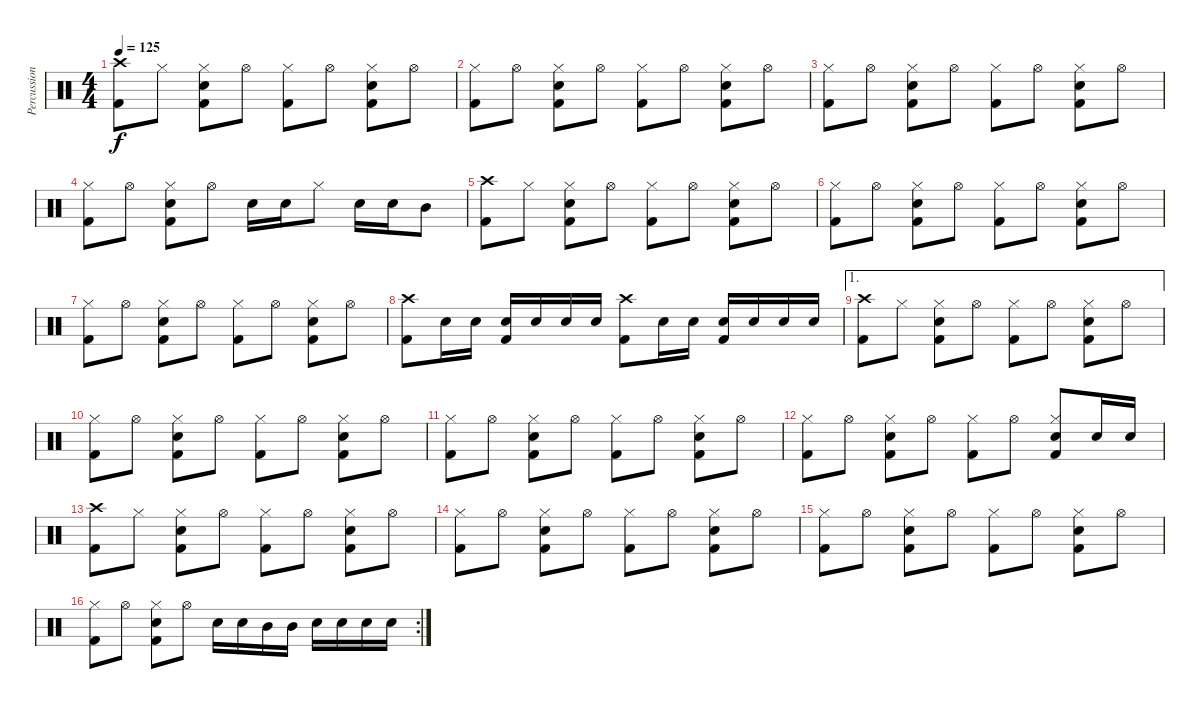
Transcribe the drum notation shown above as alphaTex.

\track ("Percussion" "Percussion") {instrument percussion}
\staff {score}
\articulation defaults
\ts (4 4)
\tempo 125
\clef neutral
\ks c
("Crash high (hit)" "Kick (hit) 2").8{dy f} "Hi-Hat (closed)".8 ("Hi-Hat (closed)" "Electric Snare (hit)" "Kick (hit) 2").8 "Hi-Hat (open)".8 ("Hi-Hat (closed)" "Kick (hit) 2").8 "Hi-Hat (open)".8 ("Hi-Hat (closed)" "Electric Snare (hit)" "Kick (hit) 2").8 "Hi-Hat (open)".8 |
("Hi-Hat (closed)" "Kick (hit) 2").8 "Hi-Hat (open)".8 ("Hi-Hat (closed)" "Electric Snare (hit)" "Kick (hit) 2").8 "Hi-Hat (open)".8 ("Hi-Hat (closed)" "Kick (hit) 2").8 "Hi-Hat (open)".8 ("Hi-Hat (closed)" "Electric Snare (hit)" "Kick (hit) 2").8 "Hi-Hat (open)".8 |
("Hi-Hat (closed)" "Kick (hit) 2").8 "Hi-Hat (open)".8 ("Hi-Hat (closed)" "Electric Snare (hit)" "Kick (hit) 2").8 "Hi-Hat (open)".8 ("Hi-Hat (closed)" "Kick (hit) 2").8 "Hi-Hat (open)".8 ("Hi-Hat (closed)" "Electric Snare (hit)" "Kick (hit) 2").8 "Hi-Hat (open)".8 |
("Hi-Hat (closed)" "Kick (hit) 2").8 "Hi-Hat (open)".8 ("Hi-Hat (closed)" "Electric Snare (hit)" "Kick (hit) 2").8 "Hi-Hat (open)".8 "Electric Snare (hit)".16 "Electric Snare (hit)".16 "Hi-Hat (closed)".8 "Electric Snare (hit)".16 "Electric Snare (hit)".16 "Mid Tom (hit)".8 |
("Crash high (hit)" "Kick (hit) 2").8 "Hi-Hat (closed)".8 ("Hi-Hat (closed)" "Electric Snare (hit)" "Kick (hit) 2").8 "Hi-Hat (open)".8 ("Hi-Hat (closed)" "Kick (hit) 2").8 "Hi-Hat (open)".8 ("Hi-Hat (closed)" "Electric Snare (hit)" "Kick (hit) 2").8 "Hi-Hat (open)".8 |
("Hi-Hat (closed)" "Kick (hit) 2").8 "Hi-Hat (open)".8 ("Hi-Hat (closed)" "Electric Snare (hit)" "Kick (hit) 2").8 "Hi-Hat (open)".8 ("Hi-Hat (closed)" "Kick (hit) 2").8 "Hi-Hat (open)".8 ("Hi-Hat (closed)" "Electric Snare (hit)" "Kick (hit) 2").8 "Hi-Hat (open)".8 |
("Hi-Hat (closed)" "Kick (hit) 2").8 "Hi-Hat (open)".8 ("Hi-Hat (closed)" "Electric Snare (hit)" "Kick (hit) 2").8 "Hi-Hat (open)".8 ("Hi-Hat (closed)" "Kick (hit) 2").8 "Hi-Hat (open)".8 ("Hi-Hat (closed)" "Electric Snare (hit)" "Kick (hit) 2").8 "Hi-Hat (open)".8 |
("Crash high (hit)" "Kick (hit) 2").8 "Electric Snare (hit)".16 "Electric Snare (hit)".16 ("Electric Snare (hit)" "Kick (hit) 2").16 "Electric Snare (hit)".16 "Electric Snare (hit)".16 "Electric Snare (hit)".16 ("Crash high (hit)" "Kick (hit) 2").8 "Electric Snare (hit)".16 "Electric Snare (hit)".16 ("Electric Snare (hit)" "Kick (hit) 2").16 "Electric Snare (hit)".16 "Electric Snare (hit)".16 "Electric Snare (hit)".16 |
\ae 1
("Crash high (hit)" "Kick (hit) 2").8{txt ""} "Hi-Hat (closed)".8 ("Hi-Hat (closed)" "Electric Snare (hit)" "Kick (hit) 2").8 "Hi-Hat (open)".8 ("Hi-Hat (closed)" "Kick (hit) 2").8 "Hi-Hat (open)".8 ("Hi-Hat (closed)" "Electric Snare (hit)" "Kick (hit) 2").8 "Hi-Hat (open)".8 |
("Hi-Hat (closed)" "Kick (hit) 2").8 "Hi-Hat (open)".8 ("Hi-Hat (closed)" "Electric Snare (hit)" "Kick (hit) 2").8 "Hi-Hat (open)".8 ("Hi-Hat (closed)" "Kick (hit) 2").8 "Hi-Hat (open)".8 ("Hi-Hat (closed)" "Electric Snare (hit)" "Kick (hit) 2").8 "Hi-Hat (open)".8 |
("Hi-Hat (closed)" "Kick (hit) 2").8 "Hi-Hat (open)".8 ("Hi-Hat (closed)" "Electric Snare (hit)" "Kick (hit) 2").8 "Hi-Hat (open)".8 ("Hi-Hat (closed)" "Kick (hit) 2").8 "Hi-Hat (open)".8 ("Hi-Hat (closed)" "Electric Snare (hit)" "Kick (hit) 2").8 "Hi-Hat (open)".8 |
("Hi-Hat (closed)" "Kick (hit) 2").8 "Hi-Hat (open)".8 ("Hi-Hat (closed)" "Electric Snare (hit)" "Kick (hit) 2").8 "Hi-Hat (open)".8 ("Hi-Hat (closed)" "Kick (hit) 2").8 "Hi-Hat (open)".8 ("Hi-Hat (closed)" "Electric Snare (hit)" "Kick (hit) 2").8 "Electric Snare (hit)".16 "Electric Snare (hit)".16 |
("Crash high (hit)" "Kick (hit) 2").8 "Hi-Hat (closed)".8 ("Hi-Hat (closed)" "Electric Snare (hit)" "Kick (hit) 2").8 "Hi-Hat (open)".8 ("Hi-Hat (closed)" "Kick (hit) 2").8 "Hi-Hat (open)".8 ("Hi-Hat (closed)" "Electric Snare (hit)" "Kick (hit) 2").8 "Hi-Hat (open)".8 |
("Hi-Hat (closed)" "Kick (hit) 2").8 "Hi-Hat (open)".8 ("Hi-Hat (closed)" "Electric Snare (hit)" "Kick (hit) 2").8 "Hi-Hat (open)".8 ("Hi-Hat (closed)" "Kick (hit) 2").8 "Hi-Hat (open)".8 ("Hi-Hat (closed)" "Electric Snare (hit)" "Kick (hit) 2").8 "Hi-Hat (open)".8 |
("Hi-Hat (closed)" "Kick (hit) 2").8 "Hi-Hat (open)".8 ("Hi-Hat (closed)" "Electric Snare (hit)" "Kick (hit) 2").8 "Hi-Hat (open)".8 ("Hi-Hat (closed)" "Kick (hit) 2").8 "Hi-Hat (open)".8 ("Hi-Hat (closed)" "Electric Snare (hit)" "Kick (hit) 2").8 "Hi-Hat (open)".8 |
\rc 2
("Hi-Hat (closed)" "Kick (hit) 2").8 "Hi-Hat (open)".8 ("Hi-Hat (closed)" "Electric Snare (hit)" "Kick (hit) 2").8 "Hi-Hat (open)".8 "Electric Snare (hit)".16 "Electric Snare (hit)".16 "Mid Tom (hit)".16 "Mid Tom (hit)".16 "Electric Snare (hit)".16 "Electric Snare (hit)".16 "Electric Snare (hit)".16 "Electric Snare (hit)".16
